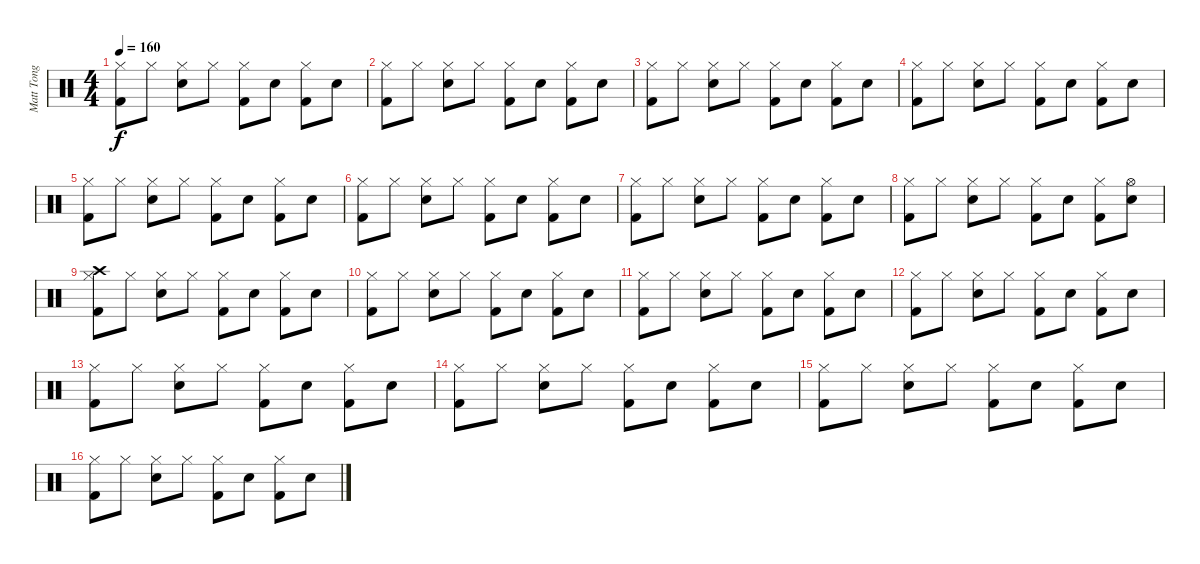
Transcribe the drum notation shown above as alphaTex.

\track ("Matt Tong" "Matt Tong") {instrument percussion}
\staff {score}
\articulation defaults
\ts (4 4)
\tempo 160
\clef neutral
\ks c
("Hi-Hat (closed)" "Kick (hit) 2").8{dy f} "Hi-Hat (closed)".8 ("Hi-Hat (closed)" "Electric Snare (hit)").8 "Hi-Hat (closed)".8 ("Hi-Hat (closed)" "Kick (hit) 2").8 "Electric Snare (hit)".8 ("Hi-Hat (closed)" "Kick (hit) 2").8 "Electric Snare (hit)".8 |
("Hi-Hat (closed)" "Kick (hit) 2").8 "Hi-Hat (closed)".8 ("Hi-Hat (closed)" "Electric Snare (hit)").8 "Hi-Hat (closed)".8 ("Hi-Hat (closed)" "Kick (hit) 2").8 "Electric Snare (hit)".8 ("Hi-Hat (closed)" "Kick (hit) 2").8 "Electric Snare (hit)".8 |
("Hi-Hat (closed)" "Kick (hit) 2").8 "Hi-Hat (closed)".8 ("Hi-Hat (closed)" "Electric Snare (hit)").8 "Hi-Hat (closed)".8 ("Hi-Hat (closed)" "Kick (hit) 2").8 "Electric Snare (hit)".8 ("Hi-Hat (closed)" "Kick (hit) 2").8 "Electric Snare (hit)".8 |
("Hi-Hat (closed)" "Kick (hit) 2").8 "Hi-Hat (closed)".8 ("Hi-Hat (closed)" "Electric Snare (hit)").8 "Hi-Hat (closed)".8 ("Hi-Hat (closed)" "Kick (hit) 2").8 "Electric Snare (hit)".8 ("Hi-Hat (closed)" "Kick (hit) 2").8 "Electric Snare (hit)".8 |
("Hi-Hat (closed)" "Kick (hit) 2").8 "Hi-Hat (closed)".8 ("Hi-Hat (closed)" "Electric Snare (hit)").8 "Hi-Hat (closed)".8 ("Hi-Hat (closed)" "Kick (hit) 2").8 "Electric Snare (hit)".8 ("Hi-Hat (closed)" "Kick (hit) 2").8 "Electric Snare (hit)".8 |
("Hi-Hat (closed)" "Kick (hit) 2").8 "Hi-Hat (closed)".8 ("Hi-Hat (closed)" "Electric Snare (hit)").8 "Hi-Hat (closed)".8 ("Hi-Hat (closed)" "Kick (hit) 2").8 "Electric Snare (hit)".8 ("Hi-Hat (closed)" "Kick (hit) 2").8 "Electric Snare (hit)".8 |
("Hi-Hat (closed)" "Kick (hit) 2").8 "Hi-Hat (closed)".8 ("Hi-Hat (closed)" "Electric Snare (hit)").8 "Hi-Hat (closed)".8 ("Hi-Hat (closed)" "Kick (hit) 2").8 "Electric Snare (hit)".8 ("Hi-Hat (closed)" "Kick (hit) 2").8 "Electric Snare (hit)".8 |
("Hi-Hat (closed)" "Kick (hit) 2").8 "Hi-Hat (closed)".8 ("Hi-Hat (closed)" "Electric Snare (hit)").8 "Hi-Hat (closed)".8 ("Hi-Hat (closed)" "Kick (hit) 2").8 "Electric Snare (hit)".8 ("Hi-Hat (closed)" "Kick (hit) 2").8 ("Hi-Hat (open)" "Electric Snare (hit)").8 |
("Crash high (hit)" "Hi-Hat (closed)" "Kick (hit) 2").8 "Hi-Hat (closed)".8 ("Hi-Hat (closed)" "Electric Snare (hit)").8 "Hi-Hat (closed)".8 ("Hi-Hat (closed)" "Kick (hit) 2").8 "Electric Snare (hit)".8 ("Hi-Hat (closed)" "Kick (hit) 2").8 "Electric Snare (hit)".8 |
("Hi-Hat (closed)" "Kick (hit) 2").8 "Hi-Hat (closed)".8 ("Hi-Hat (closed)" "Electric Snare (hit)").8 "Hi-Hat (closed)".8 ("Hi-Hat (closed)" "Kick (hit) 2").8 "Electric Snare (hit)".8 ("Hi-Hat (closed)" "Kick (hit) 2").8 "Electric Snare (hit)".8 |
("Hi-Hat (closed)" "Kick (hit) 2").8 "Hi-Hat (closed)".8 ("Hi-Hat (closed)" "Electric Snare (hit)").8 "Hi-Hat (closed)".8 ("Hi-Hat (closed)" "Kick (hit) 2").8 "Electric Snare (hit)".8 ("Hi-Hat (closed)" "Kick (hit) 2").8 "Electric Snare (hit)".8 |
("Hi-Hat (closed)" "Kick (hit) 2").8 "Hi-Hat (closed)".8 ("Hi-Hat (closed)" "Electric Snare (hit)").8 "Hi-Hat (closed)".8 ("Hi-Hat (closed)" "Kick (hit) 2").8 "Electric Snare (hit)".8 ("Hi-Hat (closed)" "Kick (hit) 2").8 "Electric Snare (hit)".8 |
("Hi-Hat (closed)" "Kick (hit) 2").8 "Hi-Hat (closed)".8 ("Hi-Hat (closed)" "Electric Snare (hit)").8 "Hi-Hat (closed)".8 ("Hi-Hat (closed)" "Kick (hit) 2").8 "Electric Snare (hit)".8 ("Hi-Hat (closed)" "Kick (hit) 2").8 "Electric Snare (hit)".8 |
("Hi-Hat (closed)" "Kick (hit) 2").8 "Hi-Hat (closed)".8 ("Hi-Hat (closed)" "Electric Snare (hit)").8 "Hi-Hat (closed)".8 ("Hi-Hat (closed)" "Kick (hit) 2").8 "Electric Snare (hit)".8 ("Hi-Hat (closed)" "Kick (hit) 2").8 "Electric Snare (hit)".8 |
("Hi-Hat (closed)" "Kick (hit) 2").8 "Hi-Hat (closed)".8 ("Hi-Hat (closed)" "Electric Snare (hit)").8 "Hi-Hat (closed)".8 ("Hi-Hat (closed)" "Kick (hit) 2").8 "Electric Snare (hit)".8 ("Hi-Hat (closed)" "Kick (hit) 2").8 "Electric Snare (hit)".8 |
("Hi-Hat (closed)" "Kick (hit) 2").8 "Hi-Hat (closed)".8 ("Hi-Hat (closed)" "Electric Snare (hit)").8 "Hi-Hat (closed)".8 ("Hi-Hat (closed)" "Kick (hit) 2").8 "Electric Snare (hit)".8 ("Hi-Hat (closed)" "Kick (hit) 2").8 "Electric Snare (hit)".8
